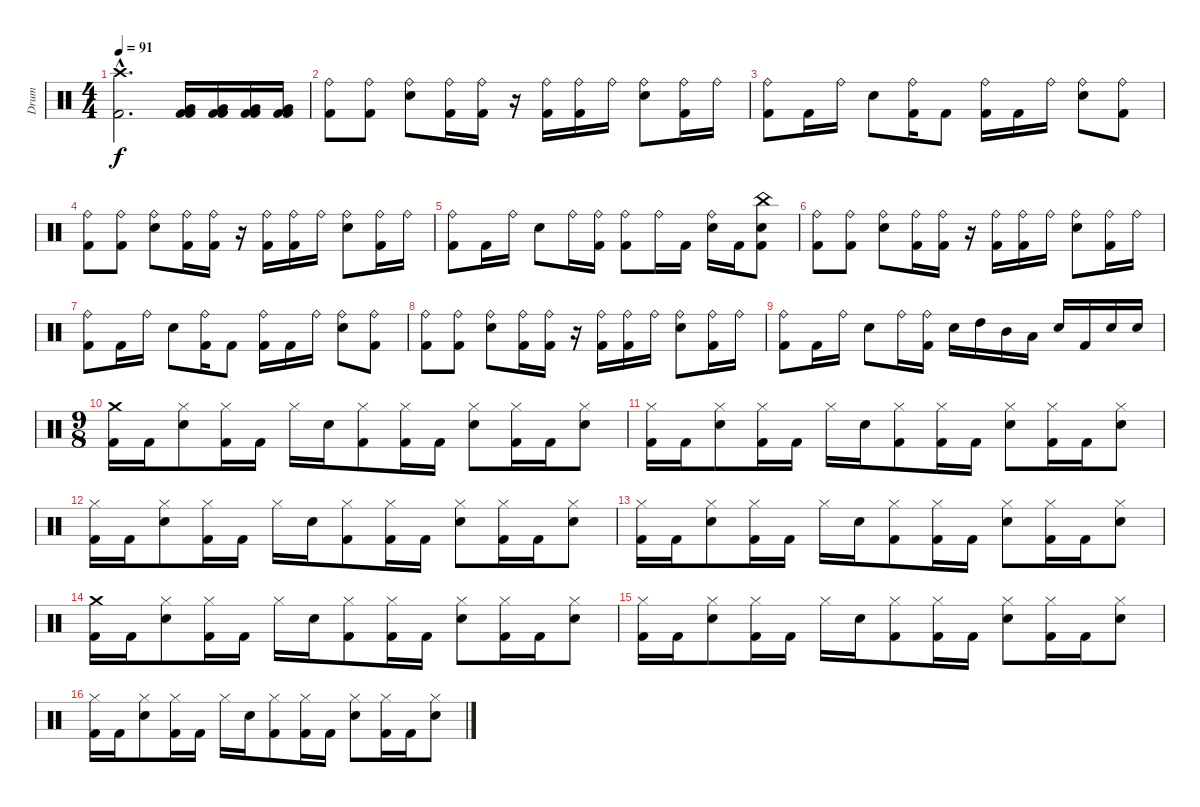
\track ("Drum" "Drum") {instrument percussion}
\staff {score}
\articulation defaults
\ts (4 4)
\tempo 91
\clef neutral
\ks c
("Crash high (hit)"{hac} "Kick (hit) 2"{hac}).2{d dy f} ("Very Low Tom (hit)" "Kick (hit) 2" "Kick (hit) 2").16 ("Very Low Tom (hit)" "Kick (hit) 2" "Kick (hit) 2").16 ("Very Low Tom (hit)" "Kick (hit) 2" "Kick (hit) 2").16 ("Very Low Tom (hit)" "Kick (hit) 2" "Kick (hit) 2").16 |
("Ride (bell)" "Kick (hit) 2").8 ("Ride (bell)" "Kick (hit) 2").8 ("Ride (bell)" "Snare (hit) 2").8 ("Ride (bell)" "Kick (hit) 2").16 ("Ride (bell)" "Kick (hit) 2").16 r.16 ("Ride (bell)" "Kick (hit) 2").16 ("Ride (bell)" "Kick (hit) 2").16 "Ride (bell)".16 ("Ride (bell)" "Snare (hit) 2").8 ("Ride (bell)" "Kick (hit) 2").16 "Ride (bell)".16 |
("Ride (bell)" "Kick (hit) 2").8 "Kick (hit) 2".16 "Ride (bell)".16 "Snare (hit) 2".8 ("Ride (bell)" "Kick (hit) 2").16 "Kick (hit) 2".8 ("Ride (bell)" "Kick (hit) 2").16 "Kick (hit) 2".16 "Ride (bell)".16 ("Ride (bell)" "Snare (hit) 2").8 ("Ride (bell)" "Kick (hit) 2").8 |
("Ride (bell)" "Kick (hit) 2").8 ("Ride (bell)" "Kick (hit) 2").8 ("Ride (bell)" "Snare (hit) 2").8 ("Ride (bell)" "Kick (hit) 2").16 ("Ride (bell)" "Kick (hit) 2").16 r.16 ("Ride (bell)" "Kick (hit) 2").16 ("Ride (bell)" "Kick (hit) 2").16 "Ride (bell)".16 ("Ride (bell)" "Snare (hit) 2").8 ("Ride (bell)" "Kick (hit) 2").16 "Ride (bell)".16 |
("Ride (bell)" "Kick (hit) 2").8 "Kick (hit) 2".16 "Ride (bell)".16 "Snare (hit) 2".8 "Ride (bell)".16 ("Ride (bell)" "Kick (hit) 2").16 ("Ride (bell)" "Kick (hit) 2").8 "Ride (bell)".16 "Kick (hit) 2".16 ("Ride (bell)" "Snare (hit) 2").16 "Kick (hit) 2".16 ("China (hit)" "Snare (hit) 2" "Kick (hit) 2").8 |
("Ride (bell)" "Kick (hit) 2").8 ("Ride (bell)" "Kick (hit) 2").8 ("Ride (bell)" "Snare (hit) 2").8 ("Ride (bell)" "Kick (hit) 2").16 ("Ride (bell)" "Kick (hit) 2").16 r.16 ("Ride (bell)" "Kick (hit) 2").16 ("Ride (bell)" "Kick (hit) 2").16 "Ride (bell)".16 ("Ride (bell)" "Snare (hit) 2").8 ("Ride (bell)" "Kick (hit) 2").16 "Ride (bell)".16 |
("Ride (bell)" "Kick (hit) 2").8 "Kick (hit) 2".16 "Ride (bell)".16 "Snare (hit) 2".8 ("Ride (bell)" "Kick (hit) 2").16 "Kick (hit) 2".8 ("Ride (bell)" "Kick (hit) 2").16 "Kick (hit) 2".16 "Ride (bell)".16 ("Ride (bell)" "Snare (hit) 2").8 ("Ride (bell)" "Kick (hit) 2").8 |
("Ride (bell)" "Kick (hit) 2").8 ("Ride (bell)" "Kick (hit) 2").8 ("Ride (bell)" "Snare (hit) 2").8 ("Ride (bell)" "Kick (hit) 2").16 ("Ride (bell)" "Kick (hit) 2").16 r.16 ("Ride (bell)" "Kick (hit) 2").16 ("Ride (bell)" "Kick (hit) 2").16 "Ride (bell)".16 ("Ride (bell)" "Snare (hit) 2").8 ("Ride (bell)" "Kick (hit) 2").16 "Ride (bell)".16 |
("Ride (bell)" "Kick (hit) 2").8 "Kick (hit) 2".16 "Ride (bell)".16 "Snare (hit) 2".8 "Ride (bell)".16 ("Ride (bell)" "Kick (hit) 2").16 "Snare (hit) 2".16 "High Tom (hit)".16 "Mid Tom (hit)".16 "Low Tom (hit)".16 "Snare (hit) 2".16 "Kick (hit) 2".16 "Snare (hit) 2".16 "Snare (hit) 2".16 |
\ts (9 8)
("Crash medium (hit)" "Kick (hit) 2").16 "Kick (hit) 2".16 ("Hi-Hat (closed)" "Snare (hit) 2").8 ("Hi-Hat (closed)" "Kick (hit) 2").16 "Kick (hit) 2".16 "Hi-Hat (closed)".16 "Snare (hit) 2".16 ("Hi-Hat (closed)" "Kick (hit) 2").8 ("Hi-Hat (closed)" "Kick (hit) 2").16 "Kick (hit) 2".16 ("Hi-Hat (closed)" "Snare (hit) 2").8 ("Hi-Hat (closed)" "Kick (hit) 2").16 "Kick (hit) 2".16 ("Hi-Hat (closed)" "Snare (hit) 2").8 |
("Hi-Hat (closed)" "Kick (hit) 2").16 "Kick (hit) 2".16 ("Hi-Hat (closed)" "Snare (hit) 2").8 ("Hi-Hat (closed)" "Kick (hit) 2").16 "Kick (hit) 2".16 "Hi-Hat (closed)".16 "Snare (hit) 2".16 ("Hi-Hat (closed)" "Kick (hit) 2").8 ("Hi-Hat (closed)" "Kick (hit) 2").16 "Kick (hit) 2".16 ("Hi-Hat (closed)" "Snare (hit) 2").8 ("Hi-Hat (closed)" "Kick (hit) 2").16 "Kick (hit) 2".16 ("Hi-Hat (closed)" "Snare (hit) 2").8 |
("Hi-Hat (closed)" "Kick (hit) 2").16 "Kick (hit) 2".16 ("Hi-Hat (closed)" "Snare (hit) 2").8 ("Hi-Hat (closed)" "Kick (hit) 2").16 "Kick (hit) 2".16 "Hi-Hat (closed)".16 "Snare (hit) 2".16 ("Hi-Hat (closed)" "Kick (hit) 2").8 ("Hi-Hat (closed)" "Kick (hit) 2").16 "Kick (hit) 2".16 ("Hi-Hat (closed)" "Snare (hit) 2").8 ("Hi-Hat (closed)" "Kick (hit) 2").16 "Kick (hit) 2".16 ("Hi-Hat (closed)" "Snare (hit) 2").8 |
("Hi-Hat (closed)" "Kick (hit) 2").16 "Kick (hit) 2".16 ("Hi-Hat (closed)" "Snare (hit) 2").8 ("Hi-Hat (closed)" "Kick (hit) 2").16 "Kick (hit) 2".16 "Hi-Hat (closed)".16 "Snare (hit) 2".16 ("Hi-Hat (closed)" "Kick (hit) 2").8 ("Hi-Hat (closed)" "Kick (hit) 2").16 "Kick (hit) 2".16 ("Hi-Hat (closed)" "Snare (hit) 2").8 ("Hi-Hat (closed)" "Kick (hit) 2").16 "Kick (hit) 2".16 ("Hi-Hat (closed)" "Snare (hit) 2").8 |
("Crash medium (hit)" "Kick (hit) 2").16 "Kick (hit) 2".16 ("Hi-Hat (closed)" "Snare (hit) 2").8 ("Hi-Hat (closed)" "Kick (hit) 2").16 "Kick (hit) 2".16 "Hi-Hat (closed)".16 "Snare (hit) 2".16 ("Hi-Hat (closed)" "Kick (hit) 2").8 ("Hi-Hat (closed)" "Kick (hit) 2").16 "Kick (hit) 2".16 ("Hi-Hat (closed)" "Snare (hit) 2").8 ("Hi-Hat (closed)" "Kick (hit) 2").16 "Kick (hit) 2".16 ("Hi-Hat (closed)" "Snare (hit) 2").8 |
("Hi-Hat (closed)" "Kick (hit) 2").16 "Kick (hit) 2".16 ("Hi-Hat (closed)" "Snare (hit) 2").8 ("Hi-Hat (closed)" "Kick (hit) 2").16 "Kick (hit) 2".16 "Hi-Hat (closed)".16 "Snare (hit) 2".16 ("Hi-Hat (closed)" "Kick (hit) 2").8 ("Hi-Hat (closed)" "Kick (hit) 2").16 "Kick (hit) 2".16 ("Hi-Hat (closed)" "Snare (hit) 2").8 ("Hi-Hat (closed)" "Kick (hit) 2").16 "Kick (hit) 2".16 ("Hi-Hat (closed)" "Snare (hit) 2").8 |
("Hi-Hat (closed)" "Kick (hit) 2").16 "Kick (hit) 2".16 ("Hi-Hat (closed)" "Snare (hit) 2").8 ("Hi-Hat (closed)" "Kick (hit) 2").16 "Kick (hit) 2".16 "Hi-Hat (closed)".16 "Snare (hit) 2".16 ("Hi-Hat (closed)" "Kick (hit) 2").8 ("Hi-Hat (closed)" "Kick (hit) 2").16 "Kick (hit) 2".16 ("Hi-Hat (closed)" "Snare (hit) 2").8 ("Hi-Hat (closed)" "Kick (hit) 2").16 "Kick (hit) 2".16 ("Hi-Hat (closed)" "Snare (hit) 2").8
